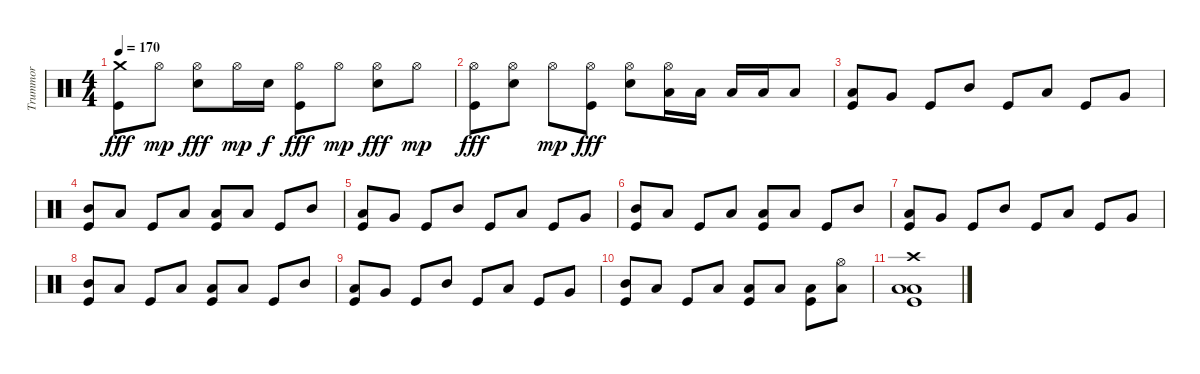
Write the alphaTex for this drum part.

\track ("Trummor" "Trummor") {instrument percussion}
\staff {score}
\articulation defaults
\ts (4 4)
\tempo 170
\clef neutral
\ks c
("Crash medium (hit)" "Kick (hit)").8{dy fff} "Hi-Hat (open)".8{dy mp} ("Hi-Hat (open)" "Electric Snare (hit)").8{dy fff} "Hi-Hat (open)".16{dy mp} "Electric Snare (hit)".16{dy f} ("Hi-Hat (open)" "Kick (hit)").8{dy fff} "Hi-Hat (open)".8{dy mp} ("Hi-Hat (open)" "Electric Snare (hit)").8{dy fff} "Hi-Hat (open)".8{dy mp} |
("Hi-Hat (open)" "Kick (hit)").8{dy fff} ("Hi-Hat (open)" "Electric Snare (hit)").8 "Hi-Hat (open)".8{dy mp} ("Hi-Hat (open)" "Kick (hit)").8{dy fff} ("Hi-Hat (open)" "Electric Snare (hit)").8 ("Hi-Hat (open)" "Low Tom (hit)").16 "Low Tom (hit)".16 "Low Tom (hit)".16 "Low Tom (hit)".16 "Low Tom (hit)".8 |
("Low Tom (hit)" "Kick (hit)").8 "Very Low Tom (hit)".8 "Kick (hit)".8 "Mid Tom (hit)".8 "Kick (hit)".8 "Low Floor Tom (hit)".8 "Kick (hit)".8 "Very Low Tom (hit)".8 |
("Mid Tom (hit)" "Kick (hit)").8 "Low Tom (hit)".8 "Kick (hit)".8 "Low Floor Tom (hit)".8 ("Low Tom (hit)" "Kick (hit)").8 "Low Tom (hit)".8 "Kick (hit)".8 "Mid Tom (hit)".8 |
("Low Tom (hit)" "Kick (hit)").8 "Very Low Tom (hit)".8 "Kick (hit)".8 "Mid Tom (hit)".8 "Kick (hit)".8 "Low Floor Tom (hit)".8 "Kick (hit)".8 "Very Low Tom (hit)".8 |
("Mid Tom (hit)" "Kick (hit)").8 "Low Tom (hit)".8 "Kick (hit)".8 "Low Floor Tom (hit)".8 ("Low Tom (hit)" "Kick (hit)").8 "Low Tom (hit)".8 "Kick (hit)".8 "Mid Tom (hit)".8 |
("Low Tom (hit)" "Kick (hit)").8 "Very Low Tom (hit)".8 "Kick (hit)".8 "Mid Tom (hit)".8 "Kick (hit)".8 "Low Floor Tom (hit)".8 "Kick (hit)".8 "Very Low Tom (hit)".8 |
("Mid Tom (hit)" "Kick (hit)").8 "Low Tom (hit)".8 "Kick (hit)".8 "Low Floor Tom (hit)".8 ("Low Tom (hit)" "Kick (hit)").8 "Low Tom (hit)".8 "Kick (hit)".8 "Mid Tom (hit)".8 |
("Low Tom (hit)" "Kick (hit)").8 "Very Low Tom (hit)".8 "Kick (hit)".8 "Mid Tom (hit)".8 "Kick (hit)".8 "Low Floor Tom (hit)".8 "Kick (hit)".8 "Very Low Tom (hit)".8 |
("Mid Tom (hit)" "Kick (hit)").8 "Low Tom (hit)".8 "Kick (hit)".8 "Low Tom (hit)".8 ("Low Tom (hit)" "Kick (hit)").8 "Low Tom (hit)".8 ("Low Tom (hit)" "Kick (hit)").8 ("Hi-Hat (open)" "Low Tom (hit)").8 |
("Crash high (hit)" "Low Floor Tom (hit)" "Low Tom (hit)" "Kick (hit)").1
